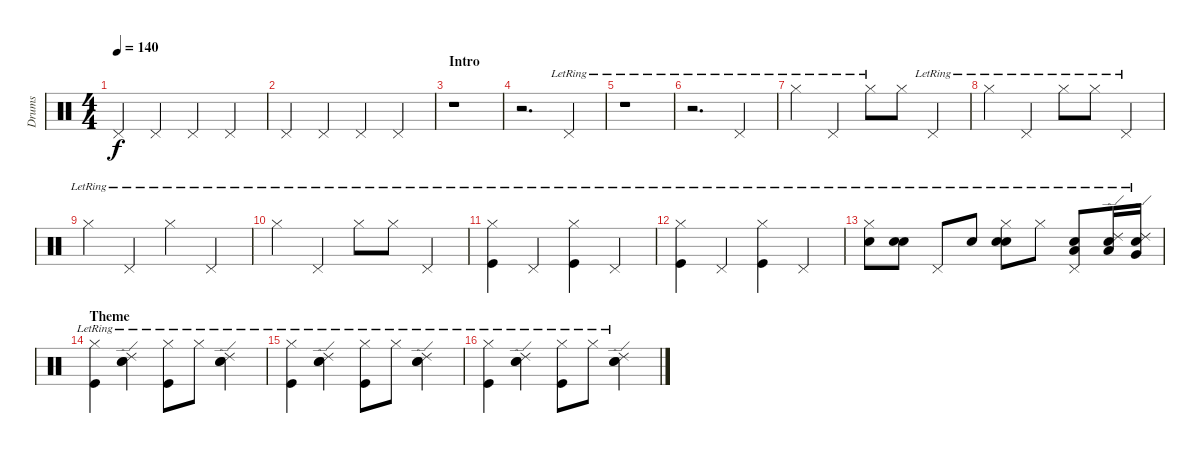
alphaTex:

\track ("Drums" "Drums") {instrument percussion}
\staff {score}
\articulation defaults
\ts (4 4)
\tempo 140
\clef neutral
\ks c "Pedal Hi-Hat (hit)".4{dy f} "Pedal Hi-Hat (hit)".4 "Pedal Hi-Hat (hit)".4 "Pedal Hi-Hat (hit)".4
|
"Pedal Hi-Hat (hit)".4 "Pedal Hi-Hat (hit)".4 "Pedal Hi-Hat (hit)".4 "Pedal Hi-Hat (hit)".4 |
\section ("" "Intro")
r.1 |
r.2{d} "Pedal Hi-Hat (hit)"{lr}.4 |
r.1 |
r.2{d} "Pedal Hi-Hat (hit)"{lr}.4 |
"Hi-Hat (closed)"{lr}.4 "Pedal Hi-Hat (hit)"{lr}.4 "Hi-Hat (closed)"{lr}.8 "Hi-Hat (closed)".8 "Pedal Hi-Hat (hit)"{lr}.4 |
"Hi-Hat (closed)"{lr}.4 "Pedal Hi-Hat (hit)"{lr}.4 "Hi-Hat (closed)"{lr}.8 "Hi-Hat (closed)"{lr}.8 "Pedal Hi-Hat (hit)"{lr}.4 |
"Hi-Hat (closed)"{lr}.4 "Pedal Hi-Hat (hit)"{lr}.4 "Hi-Hat (closed)"{lr}.4 "Pedal Hi-Hat (hit)"{lr}.4 |
"Hi-Hat (closed)"{lr}.4 "Pedal Hi-Hat (hit)"{lr}.4 "Hi-Hat (closed)"{lr}.8 "Hi-Hat (closed)"{lr}.8 "Pedal Hi-Hat (hit)"{lr}.4 |
("Hi-Hat (closed)"{lr} "Kick (hit)"{lr}).4 "Pedal Hi-Hat (hit)"{lr}.4 ("Hi-Hat (closed)"{lr} "Kick (hit)"{lr}).4 "Pedal Hi-Hat (hit)"{lr}.4 |
("Hi-Hat (closed)"{lr} "Kick (hit)"{lr}).4 "Pedal Hi-Hat (hit)"{lr}.4 ("Hi-Hat (closed)"{lr} "Kick (hit)"{lr}).4 "Pedal Hi-Hat (hit)"{lr}.4 |
("Hi-Hat (closed)"{lr} "Snare (hit) 2"{lr}).8 ("Snare (hit) 2"{lr} "Electric Snare (hit)"{lr}).8 "Pedal Hi-Hat (hit)"{lr}.8 "Snare (hit) 2"{lr}.8 ("Hi-Hat (closed)"{lr} "Snare (hit) 2"{lr} "Electric Snare (hit)"{lr}).8 "Hi-Hat (closed)"{lr}.8 ("Pedal Hi-Hat (hit)"{lr} "Snare (hit) 2"{lr} "Low Tom (hit)"{lr}).8 ("Ride (edge) 2"{lr} "Snare (hit) 2"{lr} "Low Tom (hit)"{lr}).16 ("Ride (edge) 2"{lr} "Snare (hit) 2"{lr} "Very Low Tom (hit)"{lr}).16 |
\section ("" "Theme")
("Hi-Hat (closed)"{lr} "Kick (hit)"{lr}).4 ("Electric Snare (hit)"{lr} "Ride (edge) 2"{lr} "Snare (hit) 2"{lr}).4 ("Hi-Hat (closed)"{lr} "Kick (hit)"{lr}).8 "Hi-Hat (closed)"{lr}.8 ("Electric Snare (hit)"{lr} "Ride (edge) 2"{lr} "Snare (hit) 2"{lr}).4 |
("Hi-Hat (closed)"{lr} "Kick (hit)"{lr}).4 ("Electric Snare (hit)"{lr} "Ride (edge) 2"{lr} "Snare (hit) 2"{lr}).4 ("Hi-Hat (closed)"{lr} "Kick (hit)"{lr}).8 "Hi-Hat (closed)"{lr}.8 ("Electric Snare (hit)"{lr} "Ride (edge) 2"{lr} "Snare (hit) 2"{lr}).4 |
("Hi-Hat (closed)"{lr} "Kick (hit)"{lr}).4 ("Electric Snare (hit)"{lr} "Ride (edge) 2"{lr} "Snare (hit) 2"{lr}).4 ("Hi-Hat (closed)"{lr} "Kick (hit)"{lr}).8 "Hi-Hat (closed)"{lr}.8 ("Electric Snare (hit)"{lr} "Ride (edge) 2"{lr} "Snare (hit) 2"{lr}).4
